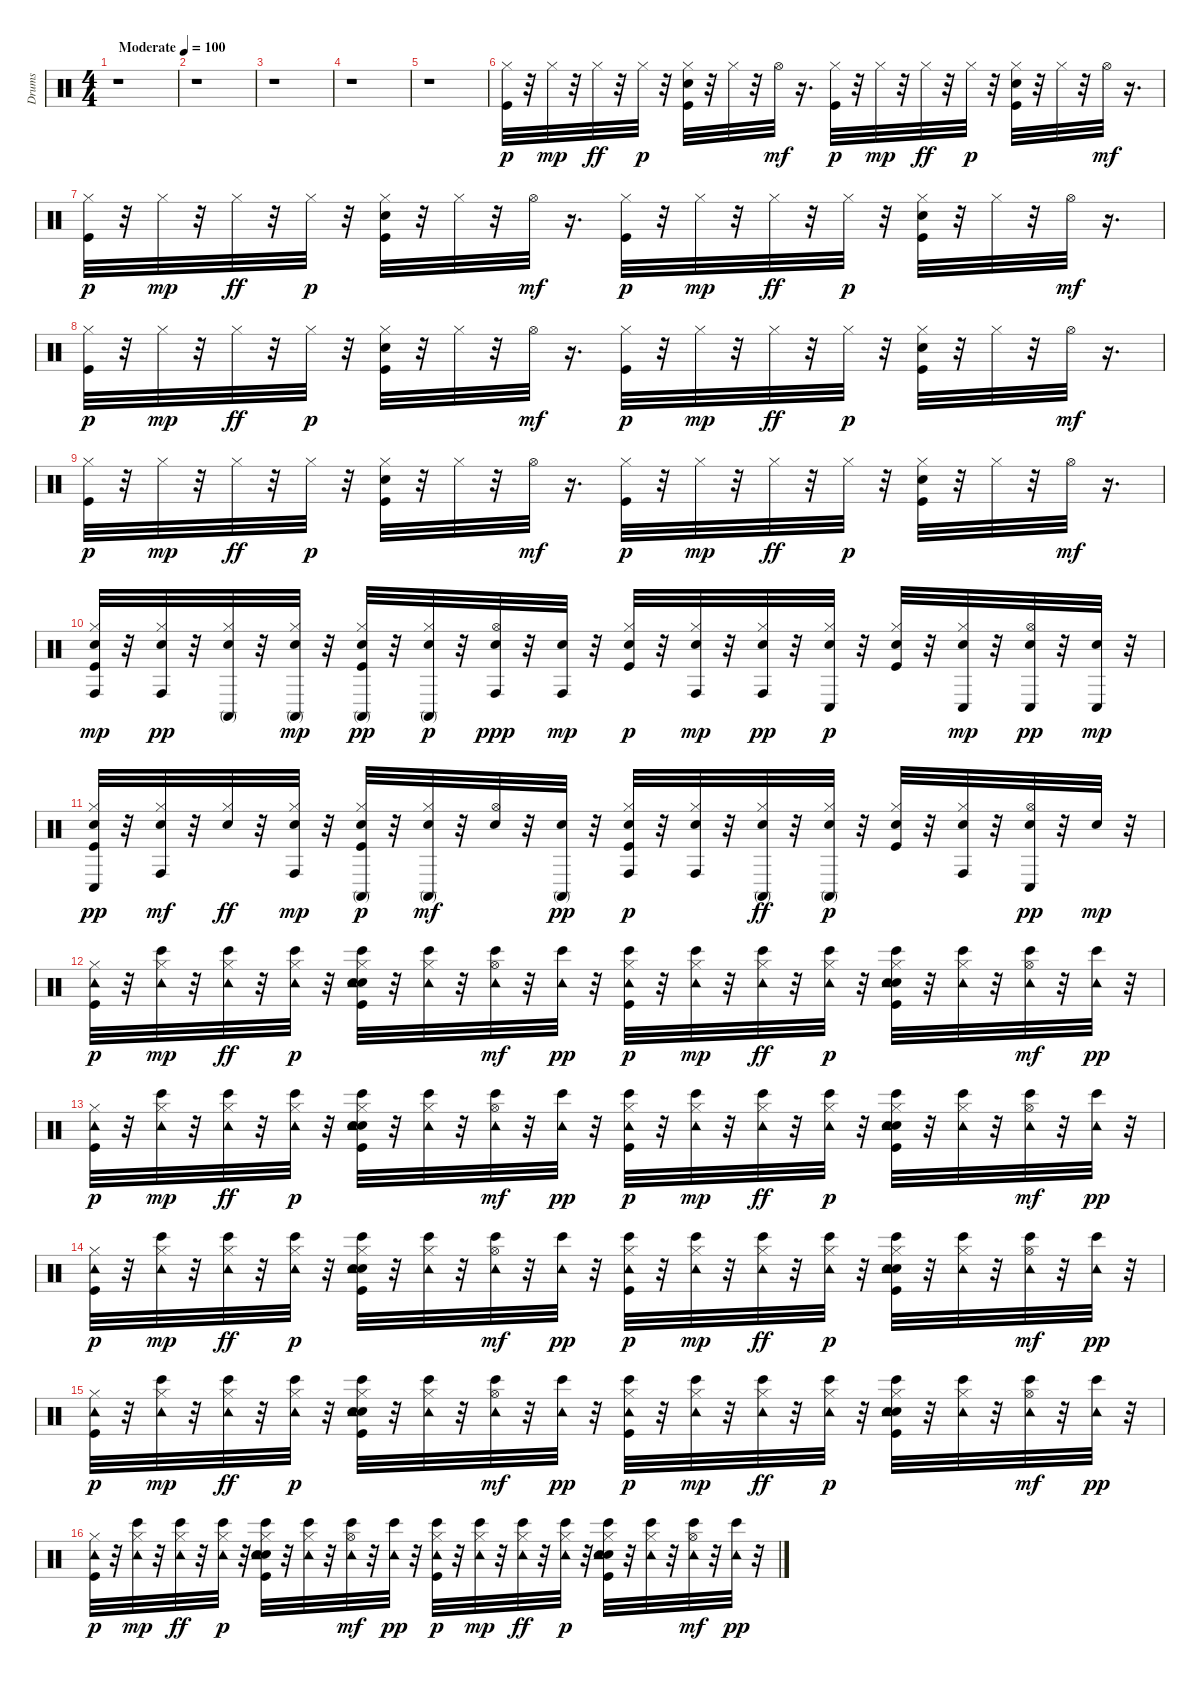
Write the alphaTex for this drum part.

\track ("Drums" "Drums") {instrument percussion}
\staff {score}
\articulation defaults
\ts (4 4)
\tempo (100 "Moderate")
\clef neutral
\ks c
r.1{dy p} |
r.1 |
r.1 |
r.1 |
r.1 |
("Kick (hit)" "Hi-Hat (closed)").32 r.32 "Hi-Hat (closed)".32{dy mp} r.32 "Hi-Hat (closed)".32{dy ff} r.32 "Hi-Hat (closed)".32{dy p} r.32 ("Snare (hit) 2" "Kick (hit)" "Hi-Hat (closed)").32 r.32 "Hi-Hat (closed)".32 r.32 "Hi-Hat (open)".32{dy mf} r.16{d} ("Kick (hit)" "Hi-Hat (closed)").32{dy p} r.32 "Hi-Hat (closed)".32{dy mp} r.32 "Hi-Hat (closed)".32{dy ff} r.32 "Hi-Hat (closed)".32{dy p} r.32 ("Snare (hit) 2" "Kick (hit)" "Hi-Hat (closed)").32 r.32 "Hi-Hat (closed)".32 r.32 "Hi-Hat (open)".32{dy mf} r.16{d} |
("Kick (hit)" "Hi-Hat (closed)").32{dy p} r.32 "Hi-Hat (closed)".32{dy mp} r.32 "Hi-Hat (closed)".32{dy ff} r.32 "Hi-Hat (closed)".32{dy p} r.32 ("Snare (hit) 2" "Kick (hit)" "Hi-Hat (closed)").32 r.32 "Hi-Hat (closed)".32 r.32 "Hi-Hat (open)".32{dy mf} r.16{d} ("Kick (hit)" "Hi-Hat (closed)").32{dy p} r.32 "Hi-Hat (closed)".32{dy mp} r.32 "Hi-Hat (closed)".32{dy ff} r.32 "Hi-Hat (closed)".32{dy p} r.32 ("Snare (hit) 2" "Kick (hit)" "Hi-Hat (closed)").32 r.32 "Hi-Hat (closed)".32 r.32 "Hi-Hat (open)".32{dy mf} r.16{d} |
("Kick (hit)" "Hi-Hat (closed)").32{dy p} r.32 "Hi-Hat (closed)".32{dy mp} r.32 "Hi-Hat (closed)".32{dy ff} r.32 "Hi-Hat (closed)".32{dy p} r.32 ("Snare (hit) 2" "Kick (hit)" "Hi-Hat (closed)").32 r.32 "Hi-Hat (closed)".32 r.32 "Hi-Hat (open)".32{dy mf} r.16{d} ("Kick (hit)" "Hi-Hat (closed)").32{dy p} r.32 "Hi-Hat (closed)".32{dy mp} r.32 "Hi-Hat (closed)".32{dy ff} r.32 "Hi-Hat (closed)".32{dy p} r.32 ("Snare (hit) 2" "Kick (hit)" "Hi-Hat (closed)").32 r.32 "Hi-Hat (closed)".32 r.32 "Hi-Hat (open)".32{dy mf} r.16{d} |
("Kick (hit)" "Hi-Hat (closed)").32{dy p} r.32 "Hi-Hat (closed)".32{dy mp} r.32 "Hi-Hat (closed)".32{dy ff} r.32 "Hi-Hat (closed)".32{dy p} r.32 ("Snare (hit) 2" "Kick (hit)" "Hi-Hat (closed)").32 r.32 "Hi-Hat (closed)".32 r.32 "Hi-Hat (open)".32{dy mf} r.16{d} ("Kick (hit)" "Hi-Hat (closed)").32{dy p} r.32 "Hi-Hat (closed)".32{dy mp} r.32 "Hi-Hat (closed)".32{dy ff} r.32 "Hi-Hat (closed)".32{dy p} r.32 ("Snare (hit) 2" "Kick (hit)" "Hi-Hat (closed)").32 r.32 "Hi-Hat (closed)".32 r.32 "Hi-Hat (open)".32{dy mf} r.16{d} |
("Hand Clap (hit)" "Kick (hit)" "Hi-Hat (closed)" "Conga high (hit)").32{dy mp} r.32 ("Hand Clap (hit)" "Hi-Hat (closed)" "Conga high (hit)").32{dy pp} r.32 ("Hand Clap (hit)" "Hi-Hat (closed)" "Conga high (mute)").32 r.32 ("Hand Clap (hit)" "Hi-Hat (closed)" "Conga high (mute)").32{dy mp} r.32 ("Hand Clap (hit)" "Kick (hit)" "Hi-Hat (closed)" "Conga high (mute)").32{dy pp} r.32 ("Hand Clap (hit)" "Hi-Hat (closed)" "Conga high (mute)").32{dy p} r.32 ("Hand Clap (hit)" "Hi-Hat (open)" "Conga high (hit)").32{dy ppp} r.32 ("Hand Clap (hit)" "Conga high (hit)").32{dy mp} r.32 ("Hand Clap (hit)" "Kick (hit)" "Hi-Hat (closed)").32{dy p} r.32 ("Hand Clap (hit)" "Hi-Hat (closed)" "Conga high (hit)").32{dy mp} r.32 ("Hand Clap (hit)" "Hi-Hat (closed)" "Conga high (hit)").32{dy pp} r.32 ("Conga low (hit)" "Hand Clap (hit)" "Hi-Hat (closed)").32{dy p} r.32 ("Hand Clap (hit)" "Kick (hit)" "Hi-Hat (closed)").32 r.32 ("Hand Clap (hit)" "Hi-Hat (closed)" "Conga low (hit)").32{dy mp} r.32 ("Hand Clap (hit)" "Hi-Hat (open)" "Conga low (hit)").32{dy pp} r.32 ("Conga low (hit)" "Hand Clap (hit)").32{dy mp} r.32 |
("Hand Clap (hit)" "Kick (hit)" "Hi-Hat (closed)" "Conga low (hit)").32{dy pp} r.32 ("Hand Clap (hit)" "Hi-Hat (closed)" "Conga high (hit)").32{dy mf} r.32 ("Hand Clap (hit)" "Hi-Hat (closed)").32{dy ff} r.32 ("Hand Clap (hit)" "Hi-Hat (closed)" "Conga high (hit)").32{dy mp} r.32 ("Hand Clap (hit)" "Kick (hit)" "Hi-Hat (closed)" "Conga high (mute)").32{dy p} r.32 ("Hand Clap (hit)" "Hi-Hat (closed)" "Conga high (mute)").32{dy mf} r.32 ("Hand Clap (hit)" "Hi-Hat (open)").32 r.32 ("Hand Clap (hit)" "Conga high (mute)").32{dy pp} r.32 ("Hand Clap (hit)" "Kick (hit)" "Hi-Hat (closed)" "Conga high (hit)").32{dy p} r.32 ("Hand Clap (hit)" "Hi-Hat (closed)" "Conga high (hit)").32 r.32 ("Conga high (mute)" "Hand Clap (hit)" "Hi-Hat (closed)").32{dy ff} r.32 ("Conga high (mute)" "Hand Clap (hit)" "Hi-Hat (closed)").32{dy p} r.32 ("Hand Clap (hit)" "Kick (hit)" "Hi-Hat (closed)").32 r.32 ("Conga high (hit)" "Hand Clap (hit)" "Hi-Hat (closed)").32 r.32 ("Hand Clap (hit)" "Hi-Hat (open)" "Conga low (hit)").32{dy pp} r.32 "Hand Clap (hit)".32{dy mp} r.32 |
("Tambourine (hit)" "Kick (hit)" "Hi-Hat (closed)").32{dy p} r.32 ("Bongo High (hit)" "Tambourine (hit)" "Hi-Hat (closed)").32{dy mp} r.32 ("Bongo High (hit)" "Tambourine (hit)" "Hi-Hat (closed)").32{dy ff} r.32 ("Bongo High (hit)" "Tambourine (hit)" "Hi-Hat (closed)").32{dy p} r.32 ("Hand Clap (hit)" "Snare (hit) 2" "Bongo High (hit)" "Tambourine (hit)" "Kick (hit)" "Hi-Hat (closed)").32 r.32 ("Bongo High (hit)" "Tambourine (hit)" "Hi-Hat (closed)").32 r.32 ("Bongo High (hit)" "Tambourine (hit)" "Hi-Hat (open)").32{dy mf} r.32 ("Bongo High (hit)" "Tambourine (hit)").32{dy pp} r.32 ("Bongo High (hit)" "Tambourine (hit)" "Kick (hit)" "Hi-Hat (closed)").32{dy p} r.32 ("Bongo High (hit)" "Tambourine (hit)" "Hi-Hat (closed)").32{dy mp} r.32 ("Bongo High (hit)" "Tambourine (hit)" "Hi-Hat (closed)").32{dy ff} r.32 ("Bongo High (hit)" "Tambourine (hit)" "Hi-Hat (closed)").32{dy p} r.32 ("Hand Clap (hit)" "Snare (hit) 2" "Bongo High (hit)" "Tambourine (hit)" "Kick (hit)" "Hi-Hat (closed)").32 r.32 ("Bongo High (hit)" "Tambourine (hit)" "Hi-Hat (closed)").32 r.32 ("Bongo High (hit)" "Tambourine (hit)" "Hi-Hat (open)").32{dy mf} r.32 ("Bongo High (hit)" "Tambourine (hit)").32{dy pp} r.32 |
("Tambourine (hit)" "Kick (hit)" "Hi-Hat (closed)").32{dy p} r.32 ("Bongo High (hit)" "Tambourine (hit)" "Hi-Hat (closed)").32{dy mp} r.32 ("Bongo High (hit)" "Tambourine (hit)" "Hi-Hat (closed)").32{dy ff} r.32 ("Bongo High (hit)" "Tambourine (hit)" "Hi-Hat (closed)").32{dy p} r.32 ("Hand Clap (hit)" "Snare (hit) 2" "Bongo High (hit)" "Tambourine (hit)" "Kick (hit)" "Hi-Hat (closed)").32 r.32 ("Bongo High (hit)" "Tambourine (hit)" "Hi-Hat (closed)").32 r.32 ("Bongo High (hit)" "Tambourine (hit)" "Hi-Hat (open)").32{dy mf} r.32 ("Bongo High (hit)" "Tambourine (hit)").32{dy pp} r.32 ("Bongo High (hit)" "Tambourine (hit)" "Kick (hit)" "Hi-Hat (closed)").32{dy p} r.32 ("Bongo High (hit)" "Tambourine (hit)" "Hi-Hat (closed)").32{dy mp} r.32 ("Bongo High (hit)" "Tambourine (hit)" "Hi-Hat (closed)").32{dy ff} r.32 ("Bongo High (hit)" "Tambourine (hit)" "Hi-Hat (closed)").32{dy p} r.32 ("Hand Clap (hit)" "Snare (hit) 2" "Bongo High (hit)" "Tambourine (hit)" "Kick (hit)" "Hi-Hat (closed)").32 r.32 ("Bongo High (hit)" "Tambourine (hit)" "Hi-Hat (closed)").32 r.32 ("Bongo High (hit)" "Tambourine (hit)" "Hi-Hat (open)").32{dy mf} r.32 ("Bongo High (hit)" "Tambourine (hit)").32{dy pp} r.32 |
("Tambourine (hit)" "Kick (hit)" "Hi-Hat (closed)").32{dy p} r.32 ("Bongo High (hit)" "Tambourine (hit)" "Hi-Hat (closed)").32{dy mp} r.32 ("Bongo High (hit)" "Tambourine (hit)" "Hi-Hat (closed)").32{dy ff} r.32 ("Bongo High (hit)" "Tambourine (hit)" "Hi-Hat (closed)").32{dy p} r.32 ("Hand Clap (hit)" "Snare (hit) 2" "Bongo High (hit)" "Tambourine (hit)" "Kick (hit)" "Hi-Hat (closed)").32 r.32 ("Bongo High (hit)" "Tambourine (hit)" "Hi-Hat (closed)").32 r.32 ("Bongo High (hit)" "Tambourine (hit)" "Hi-Hat (open)").32{dy mf} r.32 ("Bongo High (hit)" "Tambourine (hit)").32{dy pp} r.32 ("Bongo High (hit)" "Tambourine (hit)" "Kick (hit)" "Hi-Hat (closed)").32{dy p} r.32 ("Bongo High (hit)" "Tambourine (hit)" "Hi-Hat (closed)").32{dy mp} r.32 ("Bongo High (hit)" "Tambourine (hit)" "Hi-Hat (closed)").32{dy ff} r.32 ("Bongo High (hit)" "Tambourine (hit)" "Hi-Hat (closed)").32{dy p} r.32 ("Hand Clap (hit)" "Snare (hit) 2" "Bongo High (hit)" "Tambourine (hit)" "Kick (hit)" "Hi-Hat (closed)").32 r.32 ("Bongo High (hit)" "Tambourine (hit)" "Hi-Hat (closed)").32 r.32 ("Bongo High (hit)" "Tambourine (hit)" "Hi-Hat (open)").32{dy mf} r.32 ("Bongo High (hit)" "Tambourine (hit)").32{dy pp} r.32 |
("Tambourine (hit)" "Kick (hit)" "Hi-Hat (closed)").32{dy p} r.32 ("Bongo High (hit)" "Tambourine (hit)" "Hi-Hat (closed)").32{dy mp} r.32 ("Bongo High (hit)" "Tambourine (hit)" "Hi-Hat (closed)").32{dy ff} r.32 ("Bongo High (hit)" "Tambourine (hit)" "Hi-Hat (closed)").32{dy p} r.32 ("Hand Clap (hit)" "Snare (hit) 2" "Bongo High (hit)" "Tambourine (hit)" "Kick (hit)" "Hi-Hat (closed)").32 r.32 ("Bongo High (hit)" "Tambourine (hit)" "Hi-Hat (closed)").32 r.32 ("Bongo High (hit)" "Tambourine (hit)" "Hi-Hat (open)").32{dy mf} r.32 ("Bongo High (hit)" "Tambourine (hit)").32{dy pp} r.32 ("Bongo High (hit)" "Tambourine (hit)" "Kick (hit)" "Hi-Hat (closed)").32{dy p} r.32 ("Bongo High (hit)" "Tambourine (hit)" "Hi-Hat (closed)").32{dy mp} r.32 ("Bongo High (hit)" "Tambourine (hit)" "Hi-Hat (closed)").32{dy ff} r.32 ("Bongo High (hit)" "Tambourine (hit)" "Hi-Hat (closed)").32{dy p} r.32 ("Hand Clap (hit)" "Snare (hit) 2" "Bongo High (hit)" "Tambourine (hit)" "Kick (hit)" "Hi-Hat (closed)").32 r.32 ("Bongo High (hit)" "Tambourine (hit)" "Hi-Hat (closed)").32 r.32 ("Bongo High (hit)" "Tambourine (hit)" "Hi-Hat (open)").32{dy mf} r.32 ("Bongo High (hit)" "Tambourine (hit)").32{dy pp} r.32 |
("Tambourine (hit)" "Kick (hit)" "Hi-Hat (closed)").32{dy p} r.32 ("Bongo High (hit)" "Tambourine (hit)" "Hi-Hat (closed)").32{dy mp} r.32 ("Bongo High (hit)" "Tambourine (hit)" "Hi-Hat (closed)").32{dy ff} r.32 ("Bongo High (hit)" "Tambourine (hit)" "Hi-Hat (closed)").32{dy p} r.32 ("Hand Clap (hit)" "Snare (hit) 2" "Bongo High (hit)" "Tambourine (hit)" "Kick (hit)" "Hi-Hat (closed)").32 r.32 ("Bongo High (hit)" "Tambourine (hit)" "Hi-Hat (closed)").32 r.32 ("Bongo High (hit)" "Tambourine (hit)" "Hi-Hat (open)").32{dy mf} r.32 ("Bongo High (hit)" "Tambourine (hit)").32{dy pp} r.32 ("Bongo High (hit)" "Tambourine (hit)" "Kick (hit)" "Hi-Hat (closed)").32{dy p} r.32 ("Bongo High (hit)" "Tambourine (hit)" "Hi-Hat (closed)").32{dy mp} r.32 ("Bongo High (hit)" "Tambourine (hit)" "Hi-Hat (closed)").32{dy ff} r.32 ("Bongo High (hit)" "Tambourine (hit)" "Hi-Hat (closed)").32{dy p} r.32 ("Hand Clap (hit)" "Snare (hit) 2" "Bongo High (hit)" "Tambourine (hit)" "Kick (hit)" "Hi-Hat (closed)").32 r.32 ("Bongo High (hit)" "Tambourine (hit)" "Hi-Hat (closed)").32 r.32 ("Bongo High (hit)" "Tambourine (hit)" "Hi-Hat (open)").32{dy mf} r.32 ("Bongo High (hit)" "Tambourine (hit)").32{dy pp} r.32
